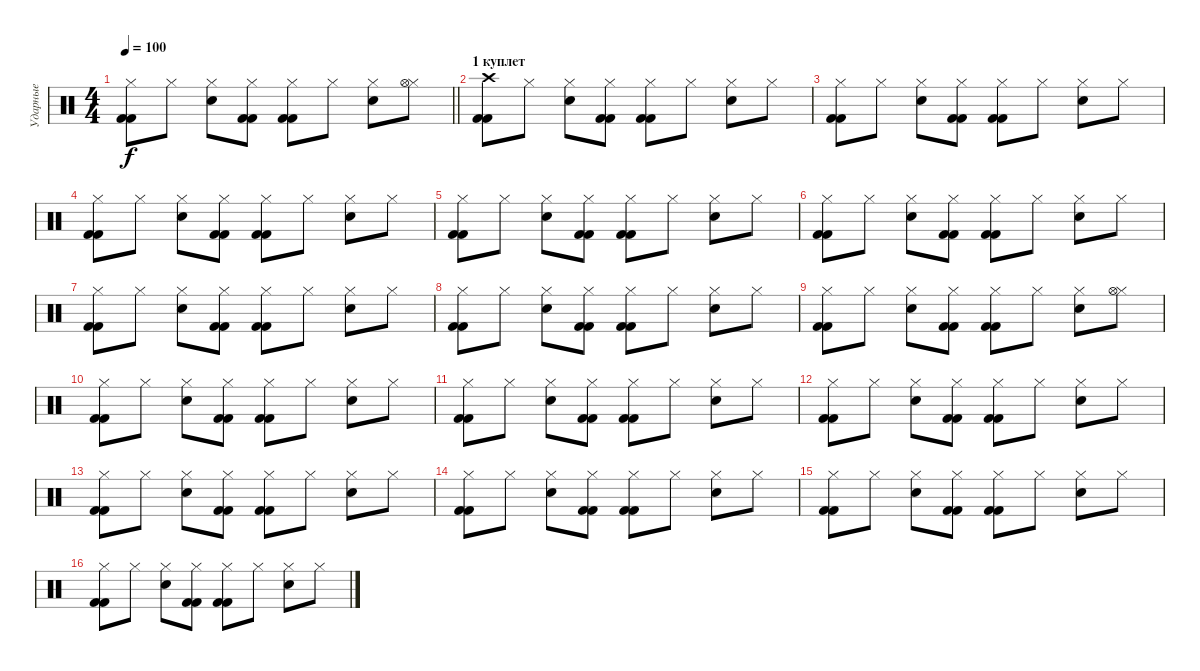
\track ("Ударные" "Ударные") {instrument percussion}
\staff {score}
\articulation defaults
\ts (4 4)
\tempo 100
\clef neutral
\barLineRight lightlight
\ks c
("Hi-Hat (closed)" "Kick (hit) 2" "Kick (hit) 2").8{dy f} "Hi-Hat (closed)".8 ("Hi-Hat (closed)" "Hand Clap (hit)").8 ("Hi-Hat (closed)" "Kick (hit) 2" "Kick (hit) 2").8 ("Hi-Hat (closed)" "Kick (hit) 2" "Kick (hit) 2").8 "Hi-Hat (closed)".8 ("Hi-Hat (closed)" "Hand Clap (hit)").8 ("Hi-Hat (closed)" "Hi-Hat (open)").8 |
\section ("" "1 куплет")
("Crash high (hit)" "Kick (hit) 2" "Kick (hit) 2").8 "Hi-Hat (closed)".8 ("Hi-Hat (closed)" "Hand Clap (hit)").8 ("Hi-Hat (closed)" "Kick (hit) 2" "Kick (hit) 2").8 ("Hi-Hat (closed)" "Kick (hit) 2" "Kick (hit) 2").8 "Hi-Hat (closed)".8 ("Hi-Hat (closed)" "Hand Clap (hit)").8 "Hi-Hat (closed)".8 |
("Hi-Hat (closed)" "Kick (hit) 2" "Kick (hit) 2").8 "Hi-Hat (closed)".8 ("Hi-Hat (closed)" "Hand Clap (hit)").8 ("Hi-Hat (closed)" "Kick (hit) 2" "Kick (hit) 2").8 ("Hi-Hat (closed)" "Kick (hit) 2" "Kick (hit) 2").8 "Hi-Hat (closed)".8 ("Hi-Hat (closed)" "Hand Clap (hit)").8 "Hi-Hat (closed)".8 |
("Hi-Hat (closed)" "Kick (hit) 2" "Kick (hit) 2").8 "Hi-Hat (closed)".8 ("Hi-Hat (closed)" "Hand Clap (hit)").8 ("Hi-Hat (closed)" "Kick (hit) 2" "Kick (hit) 2").8 ("Hi-Hat (closed)" "Kick (hit) 2" "Kick (hit) 2").8 "Hi-Hat (closed)".8 ("Hi-Hat (closed)" "Hand Clap (hit)").8 "Hi-Hat (closed)".8 |
("Hi-Hat (closed)" "Kick (hit) 2" "Kick (hit) 2").8 "Hi-Hat (closed)".8 ("Hi-Hat (closed)" "Hand Clap (hit)").8 ("Hi-Hat (closed)" "Kick (hit) 2" "Kick (hit) 2").8 ("Hi-Hat (closed)" "Kick (hit) 2" "Kick (hit) 2").8 "Hi-Hat (closed)".8 ("Hi-Hat (closed)" "Hand Clap (hit)").8 "Hi-Hat (closed)".8 |
("Hi-Hat (closed)" "Kick (hit) 2" "Kick (hit) 2").8 "Hi-Hat (closed)".8 ("Hi-Hat (closed)" "Hand Clap (hit)").8 ("Hi-Hat (closed)" "Kick (hit) 2" "Kick (hit) 2").8 ("Hi-Hat (closed)" "Kick (hit) 2" "Kick (hit) 2").8 "Hi-Hat (closed)".8 ("Hi-Hat (closed)" "Hand Clap (hit)").8 "Hi-Hat (closed)".8 |
("Hi-Hat (closed)" "Kick (hit) 2" "Kick (hit) 2").8 "Hi-Hat (closed)".8 ("Hi-Hat (closed)" "Hand Clap (hit)").8 ("Hi-Hat (closed)" "Kick (hit) 2" "Kick (hit) 2").8 ("Hi-Hat (closed)" "Kick (hit) 2" "Kick (hit) 2").8 "Hi-Hat (closed)".8 ("Hi-Hat (closed)" "Hand Clap (hit)").8 "Hi-Hat (closed)".8 |
("Hi-Hat (closed)" "Kick (hit) 2" "Kick (hit) 2").8 "Hi-Hat (closed)".8 ("Hi-Hat (closed)" "Hand Clap (hit)").8 ("Hi-Hat (closed)" "Kick (hit) 2" "Kick (hit) 2").8 ("Hi-Hat (closed)" "Kick (hit) 2" "Kick (hit) 2").8 "Hi-Hat (closed)".8 ("Hi-Hat (closed)" "Hand Clap (hit)").8 "Hi-Hat (closed)".8 |
("Hi-Hat (closed)" "Kick (hit) 2" "Kick (hit) 2").8 "Hi-Hat (closed)".8 ("Hi-Hat (closed)" "Hand Clap (hit)").8 ("Hi-Hat (closed)" "Kick (hit) 2" "Kick (hit) 2").8 ("Hi-Hat (closed)" "Kick (hit) 2" "Kick (hit) 2").8 "Hi-Hat (closed)".8 ("Hi-Hat (closed)" "Hand Clap (hit)").8 ("Hi-Hat (closed)" "Hi-Hat (open)").8 |
("Hi-Hat (closed)" "Kick (hit) 2" "Kick (hit) 2").8 "Hi-Hat (closed)".8 ("Hi-Hat (closed)" "Hand Clap (hit)").8 ("Hi-Hat (closed)" "Kick (hit) 2" "Kick (hit) 2").8 ("Hi-Hat (closed)" "Kick (hit) 2" "Kick (hit) 2").8 "Hi-Hat (closed)".8 ("Hi-Hat (closed)" "Hand Clap (hit)").8 "Hi-Hat (closed)".8 |
("Hi-Hat (closed)" "Kick (hit) 2" "Kick (hit) 2").8 "Hi-Hat (closed)".8 ("Hi-Hat (closed)" "Hand Clap (hit)").8 ("Hi-Hat (closed)" "Kick (hit) 2" "Kick (hit) 2").8 ("Hi-Hat (closed)" "Kick (hit) 2" "Kick (hit) 2").8 "Hi-Hat (closed)".8 ("Hi-Hat (closed)" "Hand Clap (hit)").8 "Hi-Hat (closed)".8 |
("Hi-Hat (closed)" "Kick (hit) 2" "Kick (hit) 2").8 "Hi-Hat (closed)".8 ("Hi-Hat (closed)" "Hand Clap (hit)").8 ("Hi-Hat (closed)" "Kick (hit) 2" "Kick (hit) 2").8 ("Hi-Hat (closed)" "Kick (hit) 2" "Kick (hit) 2").8 "Hi-Hat (closed)".8 ("Hi-Hat (closed)" "Hand Clap (hit)").8 "Hi-Hat (closed)".8 |
("Hi-Hat (closed)" "Kick (hit) 2" "Kick (hit) 2").8 "Hi-Hat (closed)".8 ("Hi-Hat (closed)" "Hand Clap (hit)").8 ("Hi-Hat (closed)" "Kick (hit) 2" "Kick (hit) 2").8 ("Hi-Hat (closed)" "Kick (hit) 2" "Kick (hit) 2").8 "Hi-Hat (closed)".8 ("Hi-Hat (closed)" "Hand Clap (hit)").8 "Hi-Hat (closed)".8 |
("Hi-Hat (closed)" "Kick (hit) 2" "Kick (hit) 2").8 "Hi-Hat (closed)".8 ("Hi-Hat (closed)" "Hand Clap (hit)").8 ("Hi-Hat (closed)" "Kick (hit) 2" "Kick (hit) 2").8 ("Hi-Hat (closed)" "Kick (hit) 2" "Kick (hit) 2").8 "Hi-Hat (closed)".8 ("Hi-Hat (closed)" "Hand Clap (hit)").8 "Hi-Hat (closed)".8 |
("Hi-Hat (closed)" "Kick (hit) 2" "Kick (hit) 2").8 "Hi-Hat (closed)".8 ("Hi-Hat (closed)" "Hand Clap (hit)").8 ("Hi-Hat (closed)" "Kick (hit) 2" "Kick (hit) 2").8 ("Hi-Hat (closed)" "Kick (hit) 2" "Kick (hit) 2").8 "Hi-Hat (closed)".8 ("Hi-Hat (closed)" "Hand Clap (hit)").8 "Hi-Hat (closed)".8 |
("Hi-Hat (closed)" "Kick (hit) 2" "Kick (hit) 2").8 "Hi-Hat (closed)".8 ("Hi-Hat (closed)" "Hand Clap (hit)").8 ("Hi-Hat (closed)" "Kick (hit) 2" "Kick (hit) 2").8 ("Hi-Hat (closed)" "Kick (hit) 2" "Kick (hit) 2").8 "Hi-Hat (closed)".8 ("Hi-Hat (closed)" "Hand Clap (hit)").8 "Hi-Hat (closed)".8
